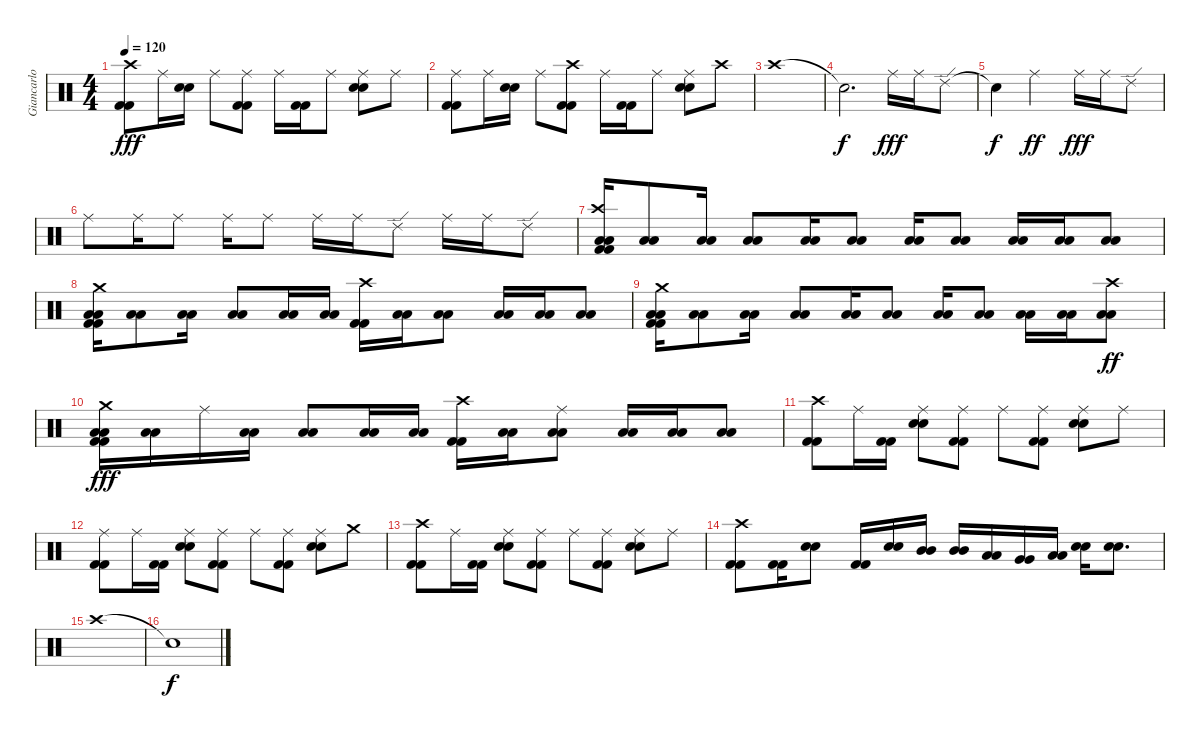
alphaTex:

\track ("Giancarlo Autenzio - Drums" "Giancarlo ") {instrument percussion}
\staff {score}
\articulation defaults
\ts (4 4)
\tempo 120
\clef neutral
\ks c
("Kick (hit) 2" "Kick (hit) 2" "Crash high (hit)").8{dy fff} "Ride (middle)".16 ("Electric Snare (hit)" "Electric Snare (hit)").16 "Ride (middle)".8 ("Kick (hit) 2" "Kick (hit) 2" "Ride (middle)").8 "Ride (middle)".16 ("Kick (hit) 2" "Kick (hit) 2").16 "Ride (middle)".8 ("Electric Snare (hit)" "Electric Snare (hit)" "Ride (middle)").8 "Ride (middle)".8 |
("Kick (hit) 2" "Kick (hit) 2" "Ride (middle)").8 "Ride (middle)".16 ("Electric Snare (hit)" "Electric Snare (hit)").16 "Ride (middle)".8 ("Kick (hit) 2" "Kick (hit) 2" "Crash high (hit)").8 "Ride (middle)".16 ("Kick (hit) 2" "Kick (hit) 2").16 "Ride (middle)".8 ("Electric Snare (hit)" "Electric Snare (hit)" "Ride (middle)").8 "Crash high (hit)".8 |
"Crash high (hit)".1 |
"Snare (hit)"{t}.2{d dy f} "Ride (middle)".16{dy fff} "Ride (middle)".16 "Ride (edge) 2".8 |
"Snare (hit)"{t}.4{dy f} "Ride (middle)".2{dy ff} "Ride (middle)".16{dy fff} "Ride (middle)".16 "Ride (edge) 2".8 |
"Ride (middle)".8 "Ride (middle)".16 "Ride (middle)".8 "Ride (middle)".16 "Ride (middle)".8 "Ride (middle)".16 "Ride (middle)".16 "Ride (edge) 2".8 "Ride (middle)".16 "Ride (middle)".16 "Ride (edge) 2".8 |
("Kick (hit) 2" "Kick (hit) 2" "Low Floor Tom (hit)" "Low Floor Tom (hit)" "Crash high (hit)").16 ("Low Floor Tom (hit)" "Low Floor Tom (hit)").8 ("Low Floor Tom (hit)" "Low Floor Tom (hit)").16 ("Low Floor Tom (hit)" "Low Floor Tom (hit)").8 ("Low Floor Tom (hit)" "Low Floor Tom (hit)").16 ("Low Floor Tom (hit)" "Low Floor Tom (hit)").8 ("Low Floor Tom (hit)" "Low Floor Tom (hit)").16 ("Low Floor Tom (hit)" "Low Floor Tom (hit)").8 ("Low Floor Tom (hit)" "Low Floor Tom (hit)").16 ("Low Floor Tom (hit)" "Low Floor Tom (hit)").16 ("Low Floor Tom (hit)" "Low Floor Tom (hit)").8 |
("Kick (hit) 2" "Kick (hit) 2" "Low Floor Tom (hit)" "Low Floor Tom (hit)" "Crash medium (hit)").16 ("Low Floor Tom (hit)" "Low Floor Tom (hit)").8 ("Low Floor Tom (hit)" "Low Floor Tom (hit)").16 ("Low Floor Tom (hit)" "Low Floor Tom (hit)").8 ("Low Floor Tom (hit)" "Low Floor Tom (hit)").16 ("Low Floor Tom (hit)" "Low Floor Tom (hit)").16 ("Kick (hit) 2" "Kick (hit) 2" "Crash high (hit)").16 ("Low Floor Tom (hit)" "Low Floor Tom (hit)").16 ("Low Floor Tom (hit)" "Low Floor Tom (hit)").8 ("Low Floor Tom (hit)" "Low Floor Tom (hit)").16 ("Low Floor Tom (hit)" "Low Floor Tom (hit)").16 ("Low Floor Tom (hit)" "Low Floor Tom (hit)").8 |
("Kick (hit) 2" "Kick (hit) 2" "Low Floor Tom (hit)" "Low Floor Tom (hit)" "Crash medium (hit)").16 ("Low Floor Tom (hit)" "Low Floor Tom (hit)").8 ("Low Floor Tom (hit)" "Low Floor Tom (hit)").16 ("Low Floor Tom (hit)" "Low Floor Tom (hit)").8 ("Low Floor Tom (hit)" "Low Floor Tom (hit)").16 ("Low Floor Tom (hit)" "Low Floor Tom (hit)").8 ("Low Floor Tom (hit)" "Low Floor Tom (hit)").16 ("Low Floor Tom (hit)" "Low Floor Tom (hit)").8 ("Low Floor Tom (hit)" "Low Floor Tom (hit)").16 ("Low Floor Tom (hit)" "Low Floor Tom (hit)").16 ("Low Floor Tom (hit)" "Low Floor Tom (hit)" "Crash high (hit)").8{dy ff} |
("Kick (hit) 2" "Kick (hit) 2" "Low Floor Tom (hit)" "Low Floor Tom (hit)" "Crash medium (hit)").16{dy fff} ("Low Floor Tom (hit)" "Low Floor Tom (hit)").16 "Ride (middle)".16 ("Low Floor Tom (hit)" "Low Floor Tom (hit)").16 ("Low Floor Tom (hit)" "Low Floor Tom (hit)").8 ("Low Floor Tom (hit)" "Low Floor Tom (hit)").16 ("Low Floor Tom (hit)" "Low Floor Tom (hit)").16 ("Kick (hit) 2" "Kick (hit) 2" "Crash high (hit)").16 ("Low Floor Tom (hit)" "Low Floor Tom (hit)").16 ("Low Floor Tom (hit)" "Low Floor Tom (hit)" "Ride (middle)").8 ("Low Floor Tom (hit)" "Low Floor Tom (hit)").16 ("Low Floor Tom (hit)" "Low Floor Tom (hit)").16 ("Low Floor Tom (hit)" "Low Floor Tom (hit)").8 |
("Kick (hit) 2" "Kick (hit) 2" "Crash high (hit)").8 "Ride (middle)".16 ("Kick (hit) 2" "Kick (hit) 2").16 ("Electric Snare (hit)" "Electric Snare (hit)" "Ride (middle)").8 ("Kick (hit) 2" "Kick (hit) 2" "Ride (middle)").8 "Ride (middle)".8 ("Kick (hit) 2" "Kick (hit) 2" "Ride (middle)").8 ("Electric Snare (hit)" "Electric Snare (hit)" "Ride (middle)").8 "Ride (middle)".8 |
("Kick (hit) 2" "Kick (hit) 2" "Ride (middle)").8 "Ride (middle)".16 ("Kick (hit) 2" "Kick (hit) 2").16 ("Electric Snare (hit)" "Electric Snare (hit)" "Ride (middle)").8 ("Kick (hit) 2" "Kick (hit) 2" "Ride (middle)").8 "Ride (middle)".8 ("Kick (hit) 2" "Kick (hit) 2" "Ride (middle)").8 ("Electric Snare (hit)" "Electric Snare (hit)" "Ride (middle)").8 "Crash medium (hit)".8 |
("Kick (hit) 2" "Kick (hit) 2" "Crash high (hit)").8 "Ride (middle)".16 ("Kick (hit) 2" "Kick (hit) 2").16 ("Electric Snare (hit)" "Electric Snare (hit)" "Ride (middle)").8 ("Kick (hit) 2" "Kick (hit) 2" "Ride (middle)").8 "Ride (middle)".8 ("Kick (hit) 2" "Kick (hit) 2" "Ride (middle)").8 ("Electric Snare (hit)" "Electric Snare (hit)" "Ride (middle)").8 "Ride (middle)".8 |
("Kick (hit) 2" "Kick (hit) 2" "Crash high (hit)").8 ("Kick (hit) 2" "Kick (hit) 2").16 ("Electric Snare (hit)" "Electric Snare (hit)").8 ("Kick (hit) 2" "Kick (hit) 2").16 ("Electric Snare (hit)" "Electric Snare (hit)").16 ("Mid Tom (hit)" "Mid Tom (hit)").16 ("Mid Tom (hit)" "Mid Tom (hit)").16 ("Low Tom (hit)" "Low Tom (hit)").16 ("Very Low Tom (hit)" "Very Low Tom (hit)").16 ("Low Floor Tom (hit)" "Low Floor Tom (hit)").16 ("Electric Snare (hit)" "Electric Snare (hit)").16 ("Electric Snare (hit)" "Electric Snare (hit)").8{d} |
"Crash high (hit)".1 |
"Snare (hit)"{t}.1{dy f}
